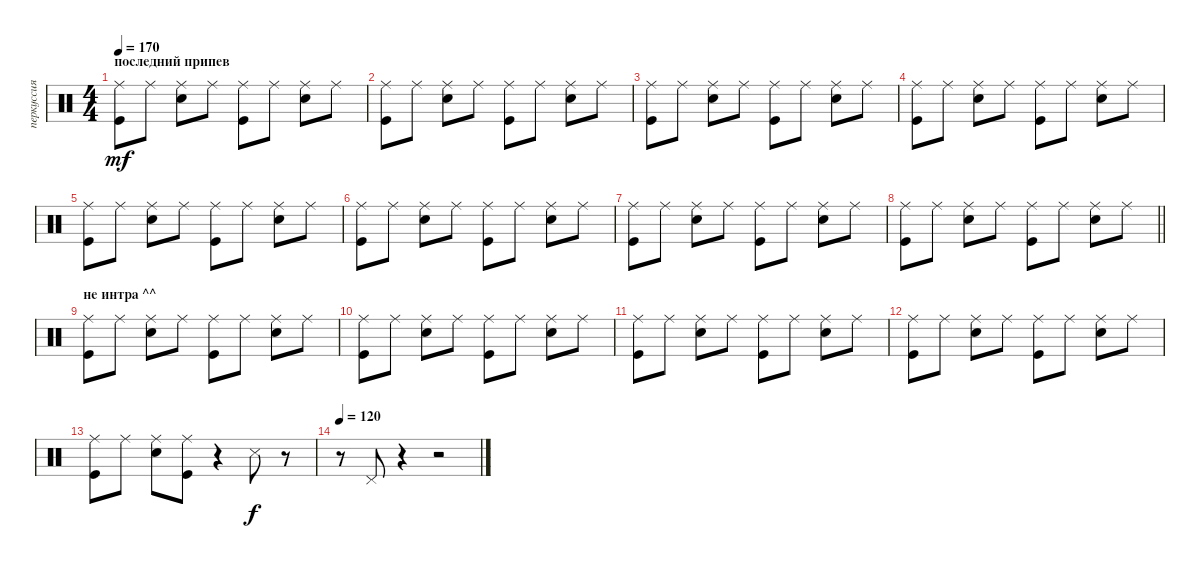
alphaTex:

\track ("перкуссия" "перкуссия") {instrument percussion}
\staff {score}
\articulation defaults
\ts (4 4)
\section ("" "последний припев")
\tempo 170
\clef neutral
\ks c
("Ride (middle)" "Kick (hit)").8{dy mf} "Ride (middle)".8 ("Ride (middle)" "Snare (hit) 2").8 "Ride (middle)".8 ("Ride (middle)" "Kick (hit)").8 "Ride (middle)".8 ("Ride (middle)" "Snare (hit) 2").8 "Ride (middle)".8 |
("Ride (middle)" "Kick (hit)").8 "Ride (middle)".8 ("Ride (middle)" "Snare (hit) 2").8 "Ride (middle)".8 ("Ride (middle)" "Kick (hit)").8 "Ride (middle)".8 ("Ride (middle)" "Snare (hit) 2").8 "Ride (middle)".8 |
("Ride (middle)" "Kick (hit)").8 "Ride (middle)".8 ("Ride (middle)" "Snare (hit) 2").8 "Ride (middle)".8 ("Ride (middle)" "Kick (hit)").8 "Ride (middle)".8 ("Ride (middle)" "Snare (hit) 2").8 "Ride (middle)".8 |
("Ride (middle)" "Kick (hit)").8 "Ride (middle)".8 ("Ride (middle)" "Snare (hit) 2").8 "Ride (middle)".8 ("Ride (middle)" "Kick (hit)").8 "Ride (middle)".8 ("Ride (middle)" "Snare (hit) 2").8 "Ride (middle)".8 |
("Ride (middle)" "Kick (hit)").8 "Ride (middle)".8 ("Ride (middle)" "Snare (hit) 2").8 "Ride (middle)".8 ("Ride (middle)" "Kick (hit)").8 "Ride (middle)".8 ("Ride (middle)" "Snare (hit) 2").8 "Ride (middle)".8 |
("Ride (middle)" "Kick (hit)").8 "Ride (middle)".8 ("Ride (middle)" "Snare (hit) 2").8 "Ride (middle)".8 ("Ride (middle)" "Kick (hit)").8 "Ride (middle)".8 ("Ride (middle)" "Snare (hit) 2").8 "Ride (middle)".8 |
("Ride (middle)" "Kick (hit)").8 "Ride (middle)".8 ("Ride (middle)" "Snare (hit) 2").8 "Ride (middle)".8 ("Ride (middle)" "Kick (hit)").8 "Ride (middle)".8 ("Ride (middle)" "Snare (hit) 2").8 "Ride (middle)".8 |
\barLineRight lightlight
("Ride (middle)" "Kick (hit)").8 "Ride (middle)".8 ("Ride (middle)" "Snare (hit) 2").8 "Ride (middle)".8 ("Ride (middle)" "Kick (hit)").8 "Ride (middle)".8 ("Ride (middle)" "Snare (hit) 2").8 "Ride (middle)".8 |
\section ("" "не интра ^^")
("Ride (middle)" "Kick (hit)").8 "Ride (middle)".8 ("Ride (middle)" "Snare (hit) 2").8 "Ride (middle)".8 ("Ride (middle)" "Kick (hit)").8 "Ride (middle)".8 ("Ride (middle)" "Snare (hit) 2").8 "Ride (middle)".8 |
("Ride (middle)" "Kick (hit)").8 "Ride (middle)".8 ("Ride (middle)" "Snare (hit) 2").8 "Ride (middle)".8 ("Ride (middle)" "Kick (hit)").8 "Ride (middle)".8 ("Ride (middle)" "Snare (hit) 2").8 "Ride (middle)".8 |
("Ride (middle)" "Kick (hit)").8 "Ride (middle)".8 ("Ride (middle)" "Snare (hit) 2").8 "Ride (middle)".8 ("Ride (middle)" "Kick (hit)").8 "Ride (middle)".8 ("Ride (middle)" "Snare (hit) 2").8 "Ride (middle)".8 |
("Ride (middle)" "Kick (hit)").8 "Ride (middle)".8 ("Ride (middle)" "Snare (hit) 2").8 "Ride (middle)".8 ("Ride (middle)" "Kick (hit)").8 "Ride (middle)".8 ("Ride (middle)" "Snare (hit) 2").8 "Ride (middle)".8 |
("Ride (middle)" "Kick (hit)").8 "Ride (middle)".8 ("Ride (middle)" "Snare (hit) 2").8 ("Ride (middle)" "Kick (hit)").8 r.4 "Snare (side stick) 3".8{dy f} r.8 |
\tempo 120
r.8 "Pedal Hi-Hat (hit)".8 r.4 r.2
